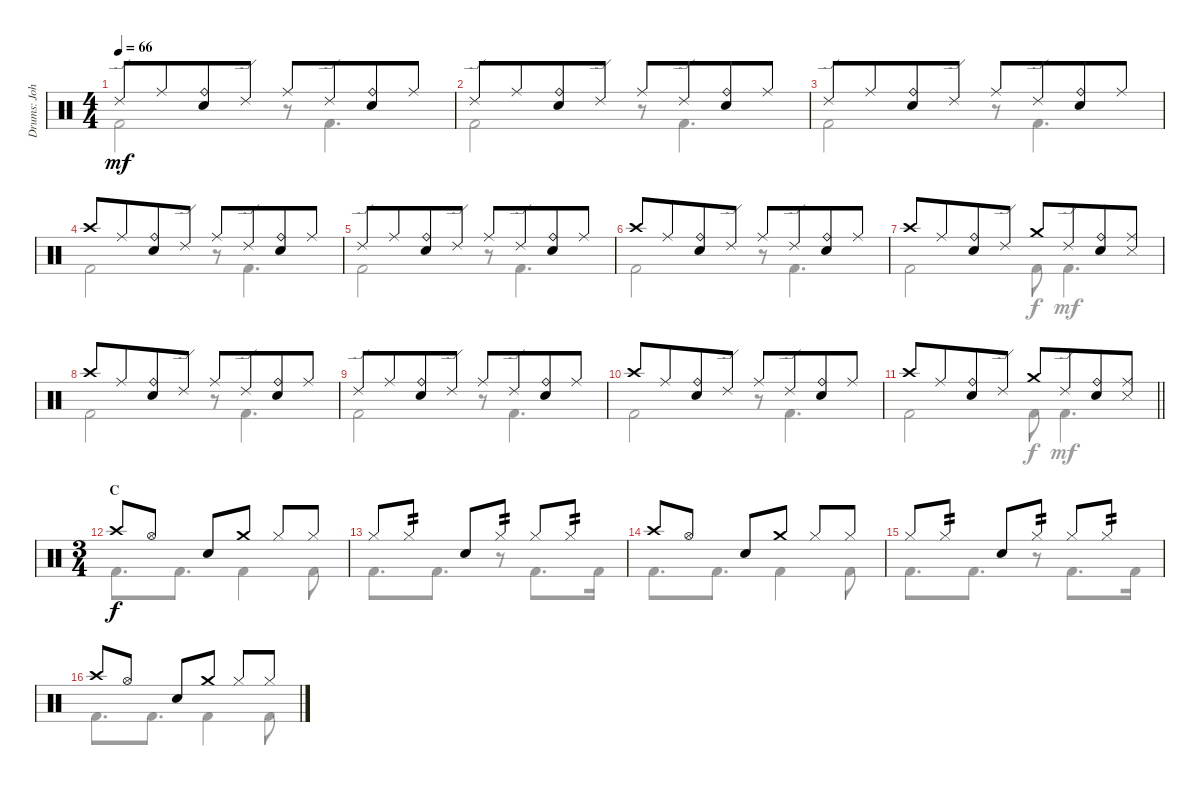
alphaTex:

\track ("Drums: John" "Drums: Joh") {instrument percussion}
\staff {score}
\articulation defaults
\voice
\ts (4 4)
\tempo 66
\clef neutral
\ks c "Ride (edge) 2".8{dy mf} "Ride (middle)".8{beam merge}
("Ride (bell)" "Electric Snare (hit)").8 "Ride (edge) 2".8 "Ride (middle)".8 "Ride (edge) 2".8{beam merge} ("Ride (bell)" "Electric Snare (hit)").8 "Ride (middle)".8 |
"Ride (edge) 2".8 "Ride (middle)".8{beam merge} ("Ride (bell)" "Electric Snare (hit)").8 "Ride (edge) 2".8 "Ride (middle)".8 "Ride (edge) 2".8{beam merge} ("Ride (bell)" "Electric Snare (hit)").8 "Ride (middle)".8 |
"Ride (edge) 2".8 "Ride (middle)".8{beam merge} ("Ride (bell)" "Electric Snare (hit)").8 "Ride (edge) 2".8 "Ride (middle)".8 "Ride (edge) 2".8{beam merge} ("Ride (bell)" "Electric Snare (hit)").8 "Ride (middle)".8 |
"Crash high (hit)".8 "Ride (middle)".8{beam merge} ("Ride (bell)" "Electric Snare (hit)").8 "Ride (edge) 2".8 "Ride (middle)".8 "Ride (edge) 2".8{beam merge} ("Ride (bell)" "Electric Snare (hit)").8 "Ride (middle)".8 |
"Ride (edge) 2".8 "Ride (middle)".8{beam merge} ("Ride (bell)" "Electric Snare (hit)").8 "Ride (edge) 2".8 "Ride (middle)".8 "Ride (edge) 2".8{beam merge} ("Ride (bell)" "Electric Snare (hit)").8 "Ride (middle)".8 |
"Crash high (hit)".8 "Ride (middle)".8{beam merge} ("Ride (bell)" "Electric Snare (hit)").8 "Ride (edge) 2".8 "Ride (middle)".8 "Ride (edge) 2".8{beam merge} ("Ride (bell)" "Electric Snare (hit)").8 "Ride (middle)".8 |
"Crash high (hit)".8 "Ride (middle)".8{beam merge} ("Ride (bell)" "Electric Snare (hit)").8 "Ride (edge) 2".8 "Crash medium (hit)".8 "Ride (edge) 2".8{beam merge} ("Ride (bell)" "Electric Snare (hit)").8 ("Ride (middle)" "Snare (side stick) 3").8 |
"Crash high (hit)".8 "Ride (middle)".8{beam merge} ("Ride (bell)" "Electric Snare (hit)").8 "Ride (edge) 2".8 "Ride (middle)".8 "Ride (edge) 2".8{beam merge} ("Ride (bell)" "Electric Snare (hit)").8 "Ride (middle)".8 |
"Ride (edge) 2".8 "Ride (middle)".8{beam merge} ("Ride (bell)" "Electric Snare (hit)").8 "Ride (edge) 2".8 "Ride (middle)".8 "Ride (edge) 2".8{beam merge} ("Ride (bell)" "Electric Snare (hit)").8 "Ride (middle)".8 |
"Crash high (hit)".8 "Ride (middle)".8{beam merge} ("Ride (bell)" "Electric Snare (hit)").8 "Ride (edge) 2".8 "Ride (middle)".8 "Ride (edge) 2".8{beam merge} ("Ride (bell)" "Electric Snare (hit)").8 "Ride (middle)".8 |
\barLineRight lightlight "Crash high (hit)".8 "Ride (middle)".8{beam merge}
("Ride (bell)" "Electric Snare (hit)").8 "Ride (edge) 2".8 "Crash medium (hit)".8 "Ride (edge) 2".8{beam merge} ("Ride (bell)" "Electric Snare (hit)").8 ("Ride (middle)" "Snare (side stick) 3").8 |
\ts (3 4)
\section ("" "C")
"Crash high (hit)".8{dy f} "Hi-Hat (open)".8 "Snare (hit) 2".8 "Crash medium (hit)".8 "Hi-Hat (closed)".8 "Hi-Hat (closed)".8 |
"Hi-Hat (closed)".8 "Hi-Hat (closed)".8{tp 2} "Snare (hit) 2".8 "Hi-Hat (closed)".8{tp 2} "Hi-Hat (closed)".8 "Hi-Hat (closed)".8{tp 2} |
"Crash high (hit)".8 "Hi-Hat (open)".8 "Snare (hit) 2".8 "Crash medium (hit)".8 "Hi-Hat (closed)".8 "Hi-Hat (closed)".8 |
"Hi-Hat (closed)".8 "Hi-Hat (closed)".8{tp 2} "Snare (hit) 2".8 "Hi-Hat (closed)".8{tp 2} "Hi-Hat (closed)".8 "Hi-Hat (closed)".8{tp 2} |
"Crash high (hit)".8 "Hi-Hat (open)".8 "Snare (hit) 2".8 "Crash medium (hit)".8 "Hi-Hat (closed)".8 "Hi-Hat (closed)".8
\voice
\clef neutral
\ottava regular
\simile none
\ks c "Kick (hit) 2".2{dy mf}
r.8 "Kick (hit) 2".4{d} |
"Kick (hit) 2".2 r.8 "Kick (hit) 2".4{d} |
"Kick (hit) 2".2 r.8 "Kick (hit) 2".4{d} |
"Kick (hit) 2".2 r.8 "Kick (hit) 2".4{d} |
"Kick (hit) 2".2 r.8 "Kick (hit) 2".4{d} |
"Kick (hit) 2".2 r.8 "Kick (hit) 2".4{d} |
"Kick (hit) 2".2 "Kick (hit) 2".8{dy f} "Kick (hit) 2".4{d dy mf} |
"Kick (hit) 2".2 r.8 "Kick (hit) 2".4{d} |
"Kick (hit) 2".2 r.8 "Kick (hit) 2".4{d} |
"Kick (hit) 2".2 r.8 "Kick (hit) 2".4{d} |
\barLineRight lightlight "Kick (hit) 2".2 "Kick (hit) 2".8{dy f} "Kick (hit) 2".4{d dy mf}
|
"Kick (hit) 2".8{d dy f} "Kick (hit) 2".8{d} "Kick (hit) 2".4 "Kick (hit) 2".8 |
"Kick (hit) 2".8{d} "Kick (hit) 2".8{d} r.8 "Kick (hit) 2".8{d} "Kick (hit) 2".16 |
"Kick (hit) 2".8{d} "Kick (hit) 2".8{d} "Kick (hit) 2".4 "Kick (hit) 2".8 |
"Kick (hit) 2".8{d} "Kick (hit) 2".8{d} r.8 "Kick (hit) 2".8{d} "Kick (hit) 2".16 |
"Kick (hit) 2".8{d} "Kick (hit) 2".8{d} "Kick (hit) 2".4 "Kick (hit) 2".8
